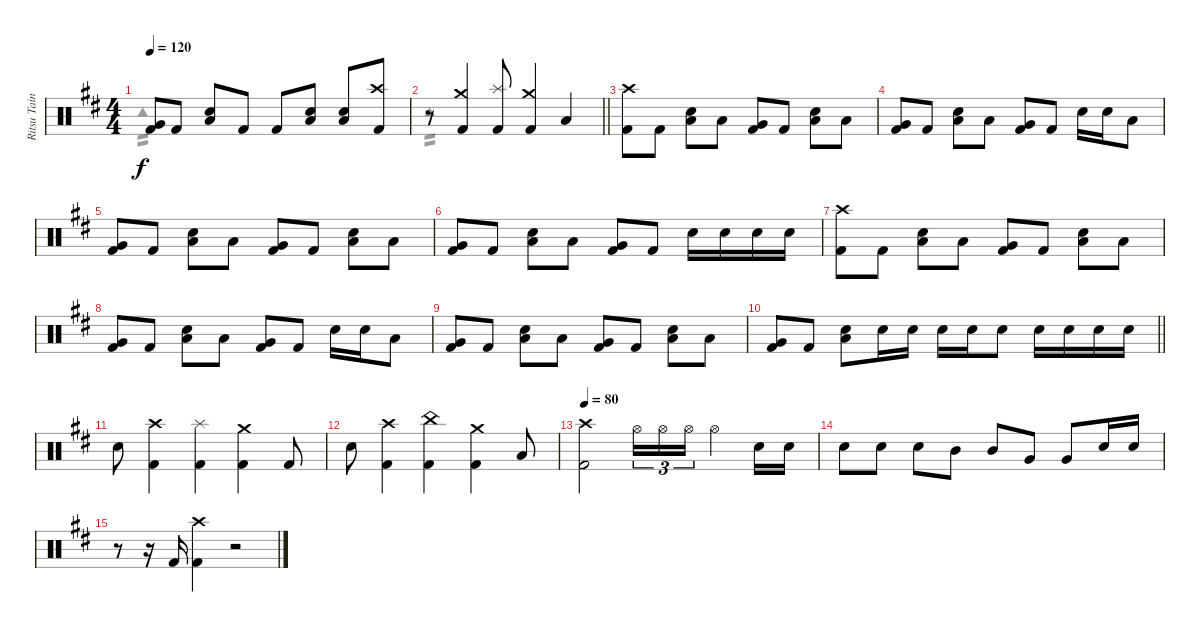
\track ("Ritsu Tainaka" "Ritsu Tain") {instrument percussion}
\staff {score}
\articulation defaults
\voice
\ts (4 4)
\tempo 120
\clef neutral
\ks d
("Very Low Tom (hit)" "Kick (hit) 2").8{dy f} "Kick (hit) 2".8 ("Snare (hit) 2" "Low Floor Tom (hit)").8 "Kick (hit) 2".8 "Kick (hit) 2".8 ("Snare (hit) 2" "Low Floor Tom (hit)").8 ("Snare (hit) 2" "Low Floor Tom (hit)").8 ("Crash high (hit)" "Kick (hit) 2").8 |
\barLineRight lightlight
r.8 ("Crash medium (hit)" "Kick (hit) 2").4 ("Splash (hit)" "Kick (hit) 2").8 ("Crash medium (hit)" "Kick (hit) 2").4 "Low Floor Tom (hit)".4 |
("Crash high (hit)" "Kick (hit) 2").8 "Kick (hit) 2".8 ("Snare (hit) 2" "Low Floor Tom (hit)").8 "Low Tom (hit)".8 ("Very Low Tom (hit)" "Kick (hit) 2").8 "Kick (hit) 2".8 ("Snare (hit) 2" "Low Floor Tom (hit)").8 "Low Tom (hit)".8 |
("Very Low Tom (hit)" "Kick (hit) 2").8 "Kick (hit) 2".8 ("Snare (hit) 2" "Low Floor Tom (hit)").8 "Low Tom (hit)".8 ("Very Low Tom (hit)" "Kick (hit) 2").8 "Kick (hit) 2".8 "Snare (hit) 2".16 "Snare (hit) 2".16 "Low Tom (hit)".8 |
("Very Low Tom (hit)" "Kick (hit) 2").8 "Kick (hit) 2".8 ("Snare (hit) 2" "Low Floor Tom (hit)").8 "Low Tom (hit)".8 ("Very Low Tom (hit)" "Kick (hit) 2").8 "Kick (hit) 2".8 ("Snare (hit) 2" "Low Floor Tom (hit)").8 "Low Tom (hit)".8 |
("Very Low Tom (hit)" "Kick (hit) 2").8 "Kick (hit) 2".8 ("Snare (hit) 2" "Low Floor Tom (hit)").8 "Low Tom (hit)".8 ("Very Low Tom (hit)" "Kick (hit) 2").8 "Kick (hit) 2".8 "Snare (hit) 2".16 "Snare (hit) 2".16 "Snare (hit) 2".16 "Snare (hit) 2".16 |
("Crash high (hit)" "Kick (hit) 2").8 "Kick (hit) 2".8 ("Snare (hit) 2" "Low Floor Tom (hit)").8 "Low Tom (hit)".8 ("Very Low Tom (hit)" "Kick (hit) 2").8 "Kick (hit) 2".8 ("Snare (hit) 2" "Low Floor Tom (hit)").8 "Low Tom (hit)".8 |
("Very Low Tom (hit)" "Kick (hit) 2").8 "Kick (hit) 2".8 ("Snare (hit) 2" "Low Floor Tom (hit)").8 "Low Tom (hit)".8 ("Very Low Tom (hit)" "Kick (hit) 2").8 "Kick (hit) 2".8 "Snare (hit) 2".16 "Snare (hit) 2".16 "Low Tom (hit)".8 |
("Very Low Tom (hit)" "Kick (hit) 2").8 "Kick (hit) 2".8 ("Snare (hit) 2" "Low Floor Tom (hit)").8 "Low Tom (hit)".8 ("Very Low Tom (hit)" "Kick (hit) 2").8 "Kick (hit) 2".8 ("Snare (hit) 2" "Low Floor Tom (hit)").8 "Low Tom (hit)".8 |
\barLineRight lightlight
("Very Low Tom (hit)" "Kick (hit) 2").8 "Kick (hit) 2".8 ("Snare (hit) 2" "Low Floor Tom (hit)").8 "Snare (hit) 2".16 "Snare (hit) 2".16 "Snare (hit) 2".16 "Snare (hit) 2".16 "Snare (hit) 2".8 "Snare (hit) 2".16 "Snare (hit) 2".16 "Snare (hit) 2".16 "Snare (hit) 2".16 |
"Snare (hit) 2".8 ("Crash high (hit)" "Kick (hit) 2").4 ("Splash (hit)" "Kick (hit) 2").4 ("Crash medium (hit)" "Kick (hit) 2").4 "Kick (hit) 2".8 |
"Snare (hit) 2".8 ("Crash high (hit)" "Kick (hit) 2").4 ("China (hit)" "Kick (hit) 2").4 ("Crash medium (hit)" "Kick (hit) 2").4 "Low Tom (hit)".8 |
\tempo 80
("Crash high (hit)" "Kick (hit) 2").2 "Hi-Hat (open)".16{tu (3 2)} "Hi-Hat (open)".16{tu (3 2)} "Hi-Hat (open)".16{tu (3 2)} "Hi-Hat (open)".4 "Snare (hit) 2".16 "Snare (hit) 2".16 |
"Snare (hit) 2".8 "Snare (hit) 2".8 "Snare (hit) 2".8 "Mid Tom (hit)".8 "Mid Tom (hit)".8 "Very Low Tom (hit)".8 "Very Low Tom (hit)".8 "Snare (hit) 2".16 "Snare (hit) 2".16 |
r.8 r.16 "Kick (hit) 2".16 ("Crash high (hit)" "Kick (hit) 2").4 r.2
\voice
\clef neutral
\ottava regular
\simile none
\ks d "Tambourine (hit)".1{tp 2 dy f}
|
\barLineRight lightlight "Tambourine (hit)".1{tp 2}
|
|
|
|
|
|
|
|
\barLineRight lightlight
|
|
|
|
|
